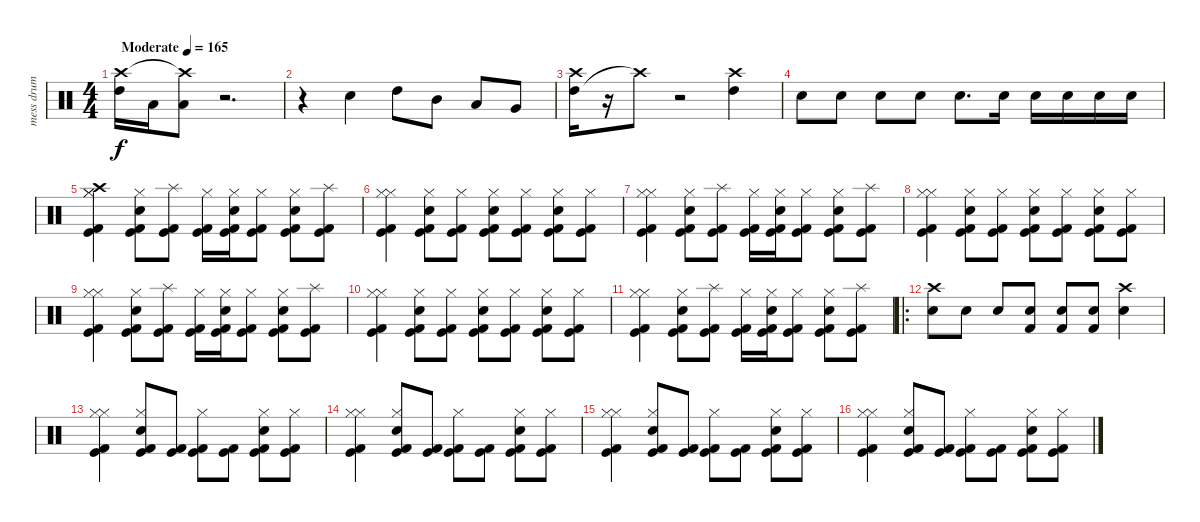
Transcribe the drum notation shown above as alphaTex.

\track ("mess drum" "mess drum") {instrument percussion}
\staff {score}
\articulation defaults
\ts (4 4)
\tempo (165 "Moderate")
\clef neutral
\ks c
("High Tom (hit)" "Crash high (hit)").16{dy f} "Low Tom (hit)".16 ("Low Floor Tom (hit)" "Crash high (hit)"{t}).8 r.2{d} |
r.4 "Electric Snare (hit)".4 "High Tom (hit)".8 "Mid Tom (hit)".8 "Low Tom (hit)".8 "Very Low Tom (hit)".8 |
("High Tom (hit)" "Crash high (hit)").16 r.16 "Crash high (hit)"{t}.8 r.2 ("High Tom (hit)" "Crash high (hit)").4 |
"Electric Snare (hit)".8 "Electric Snare (hit)".8 "Electric Snare (hit)".8 "Electric Snare (hit)".8 "Electric Snare (hit)".8{d} "Electric Snare (hit)".16 "Electric Snare (hit)".16 "Electric Snare (hit)".16 "Electric Snare (hit)".16 "Electric Snare (hit)".16 |
("Hi-Hat (closed)" "Kick (hit)" "Kick (hit) 2" "Hi-Hat (closed)" "Crash high (hit)").4 ("Kick (hit)" "Kick (hit) 2" "Hi-Hat (closed)" "Electric Snare (hit)").8 ("Kick (hit)" "Kick (hit) 2" "Splash (hit)").8 ("Kick (hit)" "Kick (hit) 2" "Hi-Hat (closed)").16 ("Kick (hit)" "Kick (hit) 2" "Hi-Hat (closed)" "Electric Snare (hit)").16 ("Kick (hit)" "Kick (hit) 2" "Hi-Hat (closed)").8 ("Kick (hit)" "Kick (hit) 2" "Hi-Hat (closed)" "Electric Snare (hit)").8 ("Kick (hit)" "Kick (hit) 2" "Splash (hit)").8 |
("Hi-Hat (closed)" "Kick (hit)" "Kick (hit) 2" "Hi-Hat (closed)").4 ("Kick (hit)" "Kick (hit) 2" "Hi-Hat (closed)" "Electric Snare (hit)").8 ("Kick (hit)" "Kick (hit) 2" "Hi-Hat (closed)").8 ("Kick (hit)" "Kick (hit) 2" "Hi-Hat (closed)" "Electric Snare (hit)").8 ("Kick (hit)" "Kick (hit) 2" "Hi-Hat (closed)").8 ("Kick (hit)" "Kick (hit) 2" "Hi-Hat (closed)" "Electric Snare (hit)").8 ("Kick (hit)" "Kick (hit) 2" "Hi-Hat (closed)").8 |
("Hi-Hat (closed)" "Kick (hit)" "Kick (hit) 2" "Hi-Hat (closed)").4 ("Kick (hit)" "Kick (hit) 2" "Hi-Hat (closed)" "Electric Snare (hit)").8 ("Kick (hit)" "Kick (hit) 2" "Splash (hit)").8 ("Kick (hit)" "Kick (hit) 2" "Hi-Hat (closed)").16 ("Kick (hit)" "Kick (hit) 2" "Hi-Hat (closed)" "Electric Snare (hit)").16 ("Kick (hit)" "Kick (hit) 2" "Hi-Hat (closed)").8 ("Kick (hit)" "Kick (hit) 2" "Hi-Hat (closed)" "Electric Snare (hit)").8 ("Kick (hit)" "Kick (hit) 2" "Splash (hit)").8 |
("Hi-Hat (closed)" "Kick (hit)" "Kick (hit) 2" "Hi-Hat (closed)").4 ("Kick (hit)" "Kick (hit) 2" "Hi-Hat (closed)" "Electric Snare (hit)").8 ("Kick (hit)" "Kick (hit) 2" "Hi-Hat (closed)").8 ("Kick (hit)" "Kick (hit) 2" "Hi-Hat (closed)" "Electric Snare (hit)").8 ("Kick (hit)" "Kick (hit) 2" "Hi-Hat (closed)").8 ("Kick (hit)" "Kick (hit) 2" "Hi-Hat (closed)" "Electric Snare (hit)").8 ("Kick (hit)" "Kick (hit) 2" "Hi-Hat (closed)").8 |
("Hi-Hat (closed)" "Kick (hit)" "Kick (hit) 2" "Hi-Hat (closed)").4 ("Kick (hit)" "Kick (hit) 2" "Hi-Hat (closed)" "Electric Snare (hit)").8 ("Kick (hit)" "Kick (hit) 2" "Splash (hit)").8 ("Kick (hit)" "Kick (hit) 2" "Hi-Hat (closed)").16 ("Kick (hit)" "Kick (hit) 2" "Hi-Hat (closed)" "Electric Snare (hit)").16 ("Kick (hit)" "Kick (hit) 2" "Hi-Hat (closed)").8 ("Kick (hit)" "Kick (hit) 2" "Hi-Hat (closed)" "Electric Snare (hit)").8 ("Kick (hit)" "Kick (hit) 2" "Splash (hit)").8 |
("Hi-Hat (closed)" "Kick (hit)" "Kick (hit) 2" "Hi-Hat (closed)").4 ("Kick (hit)" "Kick (hit) 2" "Hi-Hat (closed)" "Electric Snare (hit)").8 ("Kick (hit)" "Kick (hit) 2" "Hi-Hat (closed)").8 ("Kick (hit)" "Kick (hit) 2" "Hi-Hat (closed)" "Electric Snare (hit)").8 ("Kick (hit)" "Kick (hit) 2" "Hi-Hat (closed)").8 ("Kick (hit)" "Kick (hit) 2" "Hi-Hat (closed)" "Electric Snare (hit)").8 ("Kick (hit)" "Kick (hit) 2" "Hi-Hat (closed)").8 |
("Hi-Hat (closed)" "Kick (hit)" "Kick (hit) 2" "Hi-Hat (closed)").4 ("Kick (hit)" "Kick (hit) 2" "Hi-Hat (closed)" "Electric Snare (hit)").8 ("Kick (hit)" "Kick (hit) 2" "Splash (hit)").8 ("Kick (hit)" "Kick (hit) 2" "Hi-Hat (closed)").16 ("Kick (hit)" "Kick (hit) 2" "Hi-Hat (closed)" "Electric Snare (hit)").16 ("Kick (hit)" "Kick (hit) 2" "Hi-Hat (closed)").8 ("Kick (hit)" "Kick (hit) 2" "Hi-Hat (closed)" "Electric Snare (hit)").8 ("Kick (hit)" "Kick (hit) 2" "Splash (hit)").8 |
\ro
("Crash high (hit)" "Electric Snare (hit)").8 "Electric Snare (hit)".8 "Electric Snare (hit)".8 ("Electric Snare (hit)" "Kick (hit) 2").8 ("Electric Snare (hit)" "Kick (hit) 2").8 ("Electric Snare (hit)" "Kick (hit) 2").8 ("Electric Snare (hit)" "Crash high (hit)").4 |
("Hi-Hat (closed)" "Kick (hit)" "Kick (hit) 2" "Hi-Hat (closed)").4 ("Kick (hit)" "Kick (hit) 2" "Hi-Hat (closed)" "Electric Snare (hit)").8 ("Kick (hit)" "Kick (hit) 2").8 ("Kick (hit)" "Kick (hit) 2" "Hi-Hat (closed)").8 ("Kick (hit)" "Kick (hit) 2").8 ("Kick (hit)" "Kick (hit) 2" "Hi-Hat (closed)" "Electric Snare (hit)").8 ("Kick (hit)" "Kick (hit) 2" "Hi-Hat (closed)").8 |
("Hi-Hat (closed)" "Kick (hit)" "Kick (hit) 2" "Hi-Hat (closed)").4 ("Kick (hit)" "Kick (hit) 2" "Hi-Hat (closed)" "Electric Snare (hit)").8 ("Kick (hit)" "Kick (hit) 2").8 ("Kick (hit)" "Kick (hit) 2" "Hi-Hat (closed)").8 ("Kick (hit)" "Kick (hit) 2").8 ("Kick (hit)" "Kick (hit) 2" "Hi-Hat (closed)" "Electric Snare (hit)").8 ("Kick (hit)" "Kick (hit) 2" "Hi-Hat (closed)").8 |
("Hi-Hat (closed)" "Kick (hit)" "Kick (hit) 2" "Hi-Hat (closed)").4 ("Kick (hit)" "Kick (hit) 2" "Hi-Hat (closed)" "Electric Snare (hit)").8 ("Kick (hit)" "Kick (hit) 2").8 ("Kick (hit)" "Kick (hit) 2" "Hi-Hat (closed)").8 ("Kick (hit)" "Kick (hit) 2").8 ("Kick (hit)" "Kick (hit) 2" "Hi-Hat (closed)" "Electric Snare (hit)").8 ("Kick (hit)" "Kick (hit) 2" "Hi-Hat (closed)").8 |
("Hi-Hat (closed)" "Kick (hit)" "Kick (hit) 2" "Hi-Hat (closed)").4 ("Kick (hit)" "Kick (hit) 2" "Hi-Hat (closed)" "Electric Snare (hit)").8 ("Kick (hit)" "Kick (hit) 2").8 ("Kick (hit)" "Kick (hit) 2" "Hi-Hat (closed)").8 ("Kick (hit)" "Kick (hit) 2").8 ("Kick (hit)" "Kick (hit) 2" "Hi-Hat (closed)" "Electric Snare (hit)").8 ("Kick (hit)" "Kick (hit) 2" "Hi-Hat (closed)").8
